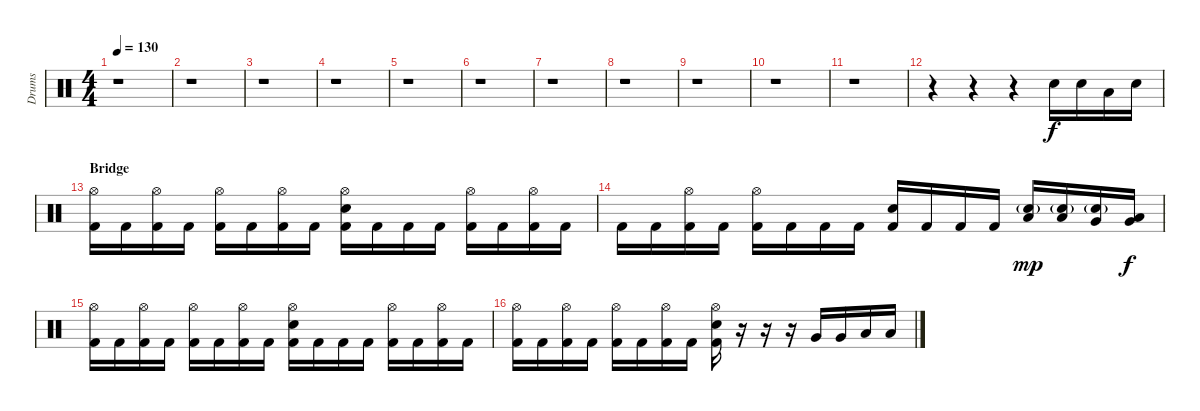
\track ("Drums" "Drums") {instrument percussion}
\staff {score}
\articulation defaults
\ts (4 4)
\tempo 130
\clef neutral
\ks c
r.1{dy f} |
r.1 |
r.1 |
r.1 |
r.1 |
r.1 |
r.1 |
r.1 |
r.1 |
r.1 |
r.1 |
r.4 r.4 r.4 "Electric Snare (hit)".16 "Electric Snare (hit)".16 "Low Tom (hit)".16 "Electric Snare (hit)".16 |
\section ("" "Bridge")
("Kick (hit) 2" "Hi-Hat (open)").16 "Kick (hit) 2".16 ("Kick (hit) 2" "Hi-Hat (open)").16 "Kick (hit) 2".16 ("Kick (hit) 2" "Hi-Hat (open)").16 "Kick (hit) 2".16 ("Kick (hit) 2" "Hi-Hat (open)").16 "Kick (hit) 2".16 ("Kick (hit) 2" "Electric Snare (hit)" "Hi-Hat (open)").16 "Kick (hit) 2".16 "Kick (hit) 2".16 "Kick (hit) 2".16 ("Kick (hit) 2" "Hi-Hat (open)").16 "Kick (hit) 2".16 ("Kick (hit) 2" "Hi-Hat (open)").16 "Kick (hit) 2".16 |
"Kick (hit) 2".16 "Kick (hit) 2".16 ("Kick (hit) 2" "Hi-Hat (open)").16 "Kick (hit) 2".16 ("Kick (hit) 2" "Hi-Hat (open)").16 "Kick (hit) 2".16 "Kick (hit) 2".16 "Kick (hit) 2".16 ("Kick (hit) 2" "Electric Snare (hit)").16 "Kick (hit) 2".16 "Kick (hit) 2".16 "Kick (hit) 2".16 ("Electric Snare (hit)"{g} "Low Tom (hit)").16{dy mp} ("Electric Snare (hit)"{g} "Low Tom (hit)").16 ("Electric Snare (hit)"{g} "Very Low Tom (hit)").16 ("Very Low Tom (hit)" "Low Floor Tom (hit)").16{dy f} |
("Kick (hit) 2" "Hi-Hat (open)").16 "Kick (hit) 2".16 ("Kick (hit) 2" "Hi-Hat (open)").16 "Kick (hit) 2".16 ("Kick (hit) 2" "Hi-Hat (open)").16 "Kick (hit) 2".16 ("Kick (hit) 2" "Hi-Hat (open)").16 "Kick (hit) 2".16 ("Kick (hit) 2" "Electric Snare (hit)" "Hi-Hat (open)").16 "Kick (hit) 2".16 "Kick (hit) 2".16 "Kick (hit) 2".16 ("Kick (hit) 2" "Hi-Hat (open)").16 "Kick (hit) 2".16 ("Kick (hit) 2" "Hi-Hat (open)").16 "Kick (hit) 2".16 |
("Kick (hit) 2" "Hi-Hat (open)").16 "Kick (hit) 2".16 ("Kick (hit) 2" "Hi-Hat (open)").16 "Kick (hit) 2".16 ("Kick (hit) 2" "Hi-Hat (open)").16 "Kick (hit) 2".16 ("Kick (hit) 2" "Hi-Hat (open)").16 "Kick (hit) 2".16 ("Kick (hit) 2" "Electric Snare (hit)" "Hi-Hat (open)").16 r.16 r.16 r.16 "Very Low Tom (hit)".16 "Very Low Tom (hit)".16 "Low Floor Tom (hit)".16 "Low Floor Tom (hit)".16
